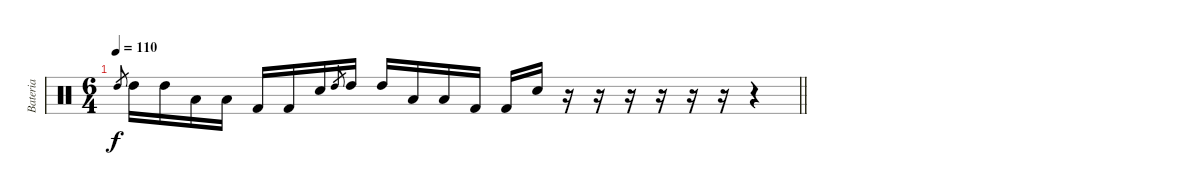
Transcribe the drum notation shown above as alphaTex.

\track ("Bateria " "Bateria ") {instrument percussion}
\staff {score}
\articulation defaults
\ts (6 4)
\tempo 110
\clef neutral
\barLineRight lightlight
\ks c "High Tom (hit)".8{gr dy f} "High Tom (hit)".16 "High Tom (hit)".16 "Low Tom (hit)".16 "Low Tom (hit)".16 "Kick (hit) 2".16 "Kick (hit) 2".16 "Electric Snare (hit)".16 "High Tom (hit)".8{gr} "High Tom (hit)".16 "High Tom (hit)".16 "Low Tom (hit)".16 "Low Tom (hit)".16 "Kick (hit) 2".16 "Kick (hit) 2".16 "Electric Snare (hit)".16
r.16 r.16 r.16 r.16 r.16 r.16 r.4
